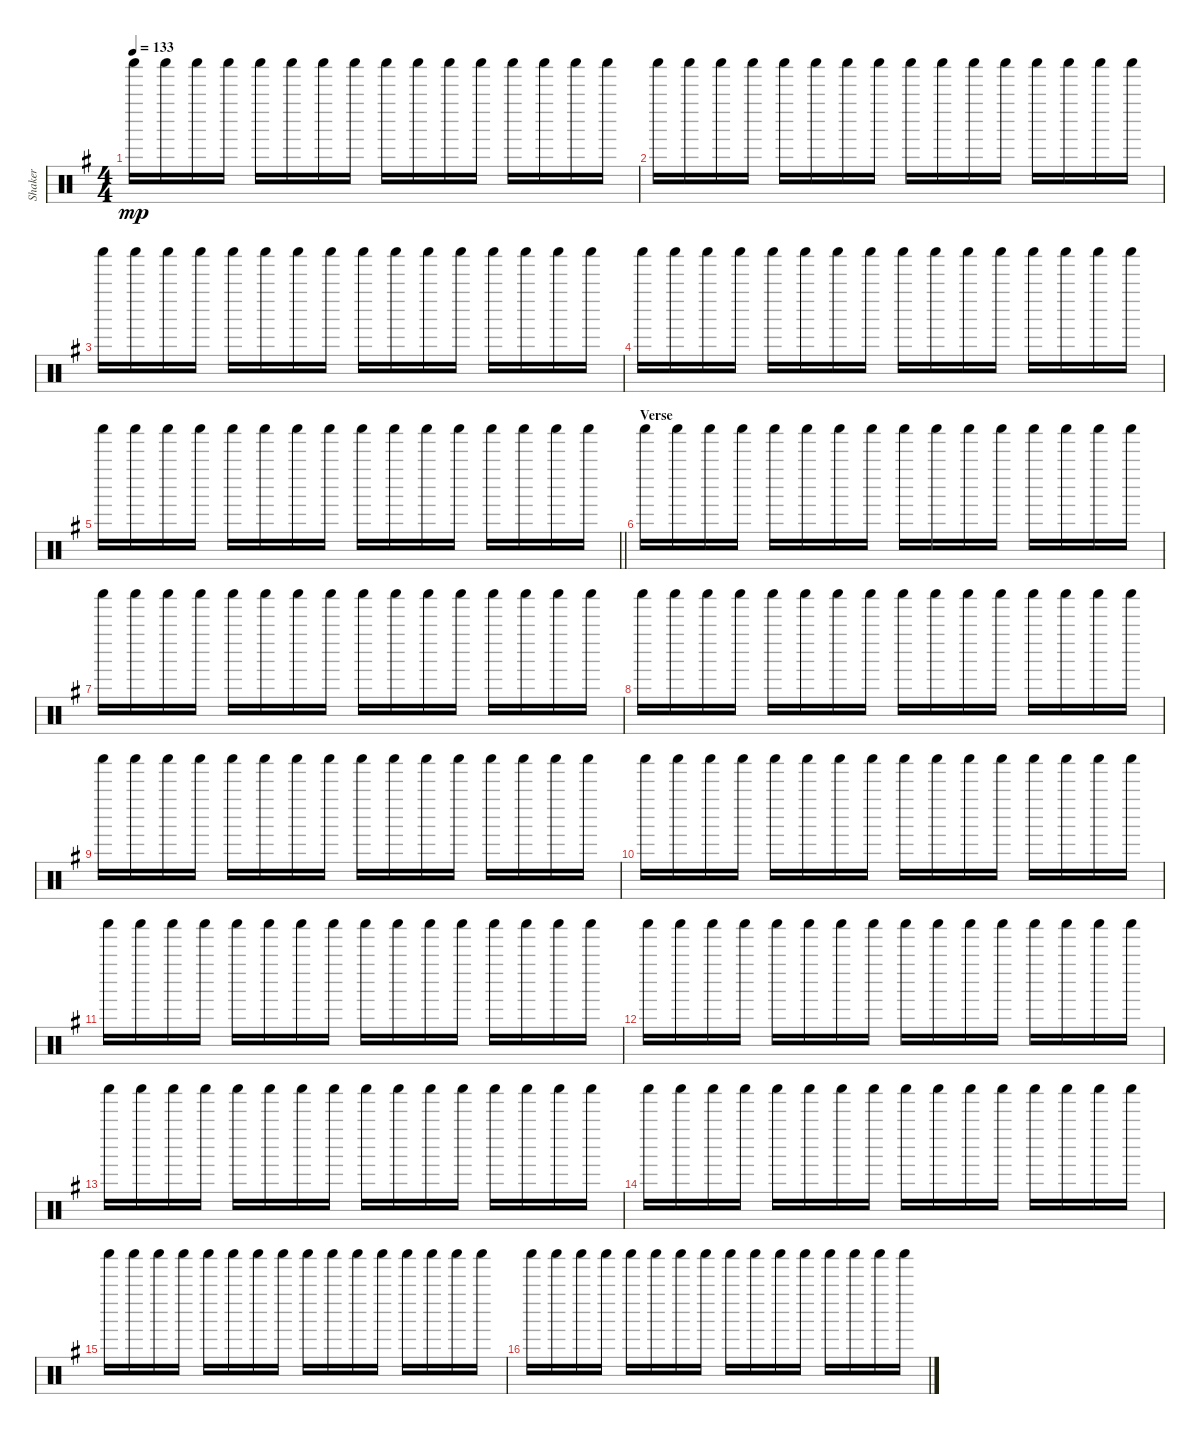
\track ("Shaker" "Shaker") {instrument percussion}
\staff {score}
\articulation defaults
\ts (4 4)
\tempo 133
\clef neutral
\ks g "Shaker (hit)".16{dy mp} "Shaker (hit)".16 "Shaker (hit)".16 "Shaker (hit)".16 "Shaker (hit)".16 "Shaker (hit)".16 "Shaker (hit)".16 "Shaker (hit)".16 "Shaker (hit)".16 "Shaker (hit)".16 "Shaker (hit)".16 "Shaker (hit)".16 "Shaker (hit)".16 "Shaker (hit)".16 "Shaker (hit)".16 "Shaker (hit)".16
|
"Shaker (hit)".16 "Shaker (hit)".16 "Shaker (hit)".16 "Shaker (hit)".16 "Shaker (hit)".16 "Shaker (hit)".16 "Shaker (hit)".16 "Shaker (hit)".16 "Shaker (hit)".16 "Shaker (hit)".16 "Shaker (hit)".16 "Shaker (hit)".16 "Shaker (hit)".16 "Shaker (hit)".16 "Shaker (hit)".16 "Shaker (hit)".16 |
"Shaker (hit)".16 "Shaker (hit)".16 "Shaker (hit)".16 "Shaker (hit)".16 "Shaker (hit)".16 "Shaker (hit)".16 "Shaker (hit)".16 "Shaker (hit)".16 "Shaker (hit)".16 "Shaker (hit)".16 "Shaker (hit)".16 "Shaker (hit)".16 "Shaker (hit)".16 "Shaker (hit)".16 "Shaker (hit)".16 "Shaker (hit)".16 |
"Shaker (hit)".16 "Shaker (hit)".16 "Shaker (hit)".16 "Shaker (hit)".16 "Shaker (hit)".16 "Shaker (hit)".16 "Shaker (hit)".16 "Shaker (hit)".16 "Shaker (hit)".16 "Shaker (hit)".16 "Shaker (hit)".16 "Shaker (hit)".16 "Shaker (hit)".16 "Shaker (hit)".16 "Shaker (hit)".16 "Shaker (hit)".16 |
\barLineRight lightlight "Shaker (hit)".16 "Shaker (hit)".16 "Shaker (hit)".16 "Shaker (hit)".16 "Shaker (hit)".16 "Shaker (hit)".16 "Shaker (hit)".16 "Shaker (hit)".16 "Shaker (hit)".16 "Shaker (hit)".16 "Shaker (hit)".16 "Shaker (hit)".16 "Shaker (hit)".16 "Shaker (hit)".16 "Shaker (hit)".16 "Shaker (hit)".16
|
\section ("" "Verse")
"Shaker (hit)".16 "Shaker (hit)".16 "Shaker (hit)".16 "Shaker (hit)".16 "Shaker (hit)".16 "Shaker (hit)".16 "Shaker (hit)".16 "Shaker (hit)".16 "Shaker (hit)".16 "Shaker (hit)".16 "Shaker (hit)".16 "Shaker (hit)".16 "Shaker (hit)".16 "Shaker (hit)".16 "Shaker (hit)".16 "Shaker (hit)".16 |
"Shaker (hit)".16 "Shaker (hit)".16 "Shaker (hit)".16 "Shaker (hit)".16 "Shaker (hit)".16 "Shaker (hit)".16 "Shaker (hit)".16 "Shaker (hit)".16 "Shaker (hit)".16 "Shaker (hit)".16 "Shaker (hit)".16 "Shaker (hit)".16 "Shaker (hit)".16 "Shaker (hit)".16 "Shaker (hit)".16 "Shaker (hit)".16 |
"Shaker (hit)".16 "Shaker (hit)".16 "Shaker (hit)".16 "Shaker (hit)".16 "Shaker (hit)".16 "Shaker (hit)".16 "Shaker (hit)".16 "Shaker (hit)".16 "Shaker (hit)".16 "Shaker (hit)".16 "Shaker (hit)".16 "Shaker (hit)".16 "Shaker (hit)".16 "Shaker (hit)".16 "Shaker (hit)".16 "Shaker (hit)".16 |
"Shaker (hit)".16 "Shaker (hit)".16 "Shaker (hit)".16 "Shaker (hit)".16 "Shaker (hit)".16 "Shaker (hit)".16 "Shaker (hit)".16 "Shaker (hit)".16 "Shaker (hit)".16 "Shaker (hit)".16 "Shaker (hit)".16 "Shaker (hit)".16 "Shaker (hit)".16 "Shaker (hit)".16 "Shaker (hit)".16 "Shaker (hit)".16 |
"Shaker (hit)".16 "Shaker (hit)".16 "Shaker (hit)".16 "Shaker (hit)".16 "Shaker (hit)".16 "Shaker (hit)".16 "Shaker (hit)".16 "Shaker (hit)".16 "Shaker (hit)".16 "Shaker (hit)".16 "Shaker (hit)".16 "Shaker (hit)".16 "Shaker (hit)".16 "Shaker (hit)".16 "Shaker (hit)".16 "Shaker (hit)".16 |
"Shaker (hit)".16 "Shaker (hit)".16 "Shaker (hit)".16 "Shaker (hit)".16 "Shaker (hit)".16 "Shaker (hit)".16 "Shaker (hit)".16 "Shaker (hit)".16 "Shaker (hit)".16 "Shaker (hit)".16 "Shaker (hit)".16 "Shaker (hit)".16 "Shaker (hit)".16 "Shaker (hit)".16 "Shaker (hit)".16 "Shaker (hit)".16 |
"Shaker (hit)".16 "Shaker (hit)".16 "Shaker (hit)".16 "Shaker (hit)".16 "Shaker (hit)".16 "Shaker (hit)".16 "Shaker (hit)".16 "Shaker (hit)".16 "Shaker (hit)".16 "Shaker (hit)".16 "Shaker (hit)".16 "Shaker (hit)".16 "Shaker (hit)".16 "Shaker (hit)".16 "Shaker (hit)".16 "Shaker (hit)".16 |
"Shaker (hit)".16 "Shaker (hit)".16 "Shaker (hit)".16 "Shaker (hit)".16 "Shaker (hit)".16 "Shaker (hit)".16 "Shaker (hit)".16 "Shaker (hit)".16 "Shaker (hit)".16 "Shaker (hit)".16 "Shaker (hit)".16 "Shaker (hit)".16 "Shaker (hit)".16 "Shaker (hit)".16 "Shaker (hit)".16 "Shaker (hit)".16 |
"Shaker (hit)".16 "Shaker (hit)".16 "Shaker (hit)".16 "Shaker (hit)".16 "Shaker (hit)".16 "Shaker (hit)".16 "Shaker (hit)".16 "Shaker (hit)".16 "Shaker (hit)".16 "Shaker (hit)".16 "Shaker (hit)".16 "Shaker (hit)".16 "Shaker (hit)".16 "Shaker (hit)".16 "Shaker (hit)".16 "Shaker (hit)".16 |
"Shaker (hit)".16 "Shaker (hit)".16 "Shaker (hit)".16 "Shaker (hit)".16 "Shaker (hit)".16 "Shaker (hit)".16 "Shaker (hit)".16 "Shaker (hit)".16 "Shaker (hit)".16 "Shaker (hit)".16 "Shaker (hit)".16 "Shaker (hit)".16 "Shaker (hit)".16 "Shaker (hit)".16 "Shaker (hit)".16 "Shaker (hit)".16 |
"Shaker (hit)".16 "Shaker (hit)".16 "Shaker (hit)".16 "Shaker (hit)".16 "Shaker (hit)".16 "Shaker (hit)".16 "Shaker (hit)".16 "Shaker (hit)".16 "Shaker (hit)".16 "Shaker (hit)".16 "Shaker (hit)".16 "Shaker (hit)".16 "Shaker (hit)".16 "Shaker (hit)".16 "Shaker (hit)".16 "Shaker (hit)".16
